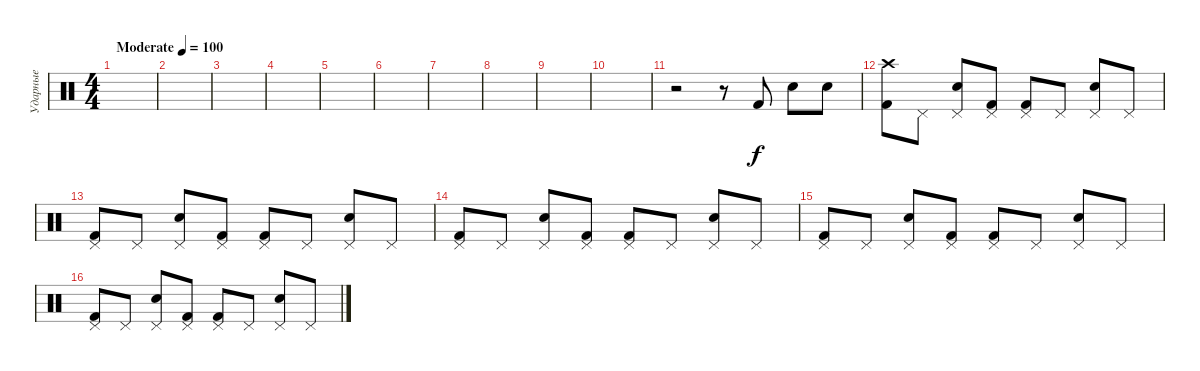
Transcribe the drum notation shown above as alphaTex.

\track ("Ударные" "Ударные") {instrument percussion}
\staff {score}
\articulation defaults
\ts (4 4)
\tempo (100 "Moderate")
\clef neutral
\ks c
|
|
|
|
|
|
|
|
|
|
r.2 r.8 "Kick (hit) 2".8 "Snare (hit) 2".8 "Snare (hit) 2".8 |
("Crash high (hit)" "Kick (hit) 2").8 "Pedal Hi-Hat (hit)".8 ("Pedal Hi-Hat (hit)" "Snare (hit) 2").8 ("Pedal Hi-Hat (hit)" "Kick (hit) 2").8 ("Pedal Hi-Hat (hit)" "Kick (hit) 2").8 "Pedal Hi-Hat (hit)".8 ("Pedal Hi-Hat (hit)" "Snare (hit) 2").8 "Pedal Hi-Hat (hit)".8 |
("Pedal Hi-Hat (hit)" "Kick (hit) 2").8 "Pedal Hi-Hat (hit)".8 ("Pedal Hi-Hat (hit)" "Snare (hit) 2").8 ("Pedal Hi-Hat (hit)" "Kick (hit) 2").8 ("Pedal Hi-Hat (hit)" "Kick (hit) 2").8 "Pedal Hi-Hat (hit)".8 ("Pedal Hi-Hat (hit)" "Snare (hit) 2").8 "Pedal Hi-Hat (hit)".8 |
("Pedal Hi-Hat (hit)" "Kick (hit) 2").8 "Pedal Hi-Hat (hit)".8 ("Pedal Hi-Hat (hit)" "Snare (hit) 2").8 ("Pedal Hi-Hat (hit)" "Kick (hit) 2").8 ("Pedal Hi-Hat (hit)" "Kick (hit) 2").8 "Pedal Hi-Hat (hit)".8 ("Pedal Hi-Hat (hit)" "Snare (hit) 2").8 "Pedal Hi-Hat (hit)".8 |
("Pedal Hi-Hat (hit)" "Kick (hit) 2").8 "Pedal Hi-Hat (hit)".8 ("Pedal Hi-Hat (hit)" "Snare (hit) 2").8 ("Pedal Hi-Hat (hit)" "Kick (hit) 2").8 ("Pedal Hi-Hat (hit)" "Kick (hit) 2").8 "Pedal Hi-Hat (hit)".8 ("Pedal Hi-Hat (hit)" "Snare (hit) 2").8 "Pedal Hi-Hat (hit)".8 |
("Pedal Hi-Hat (hit)" "Kick (hit) 2").8 "Pedal Hi-Hat (hit)".8 ("Pedal Hi-Hat (hit)" "Snare (hit) 2").8 ("Pedal Hi-Hat (hit)" "Kick (hit) 2").8 ("Pedal Hi-Hat (hit)" "Kick (hit) 2").8 "Pedal Hi-Hat (hit)".8 ("Pedal Hi-Hat (hit)" "Snare (hit) 2").8 "Pedal Hi-Hat (hit)".8
